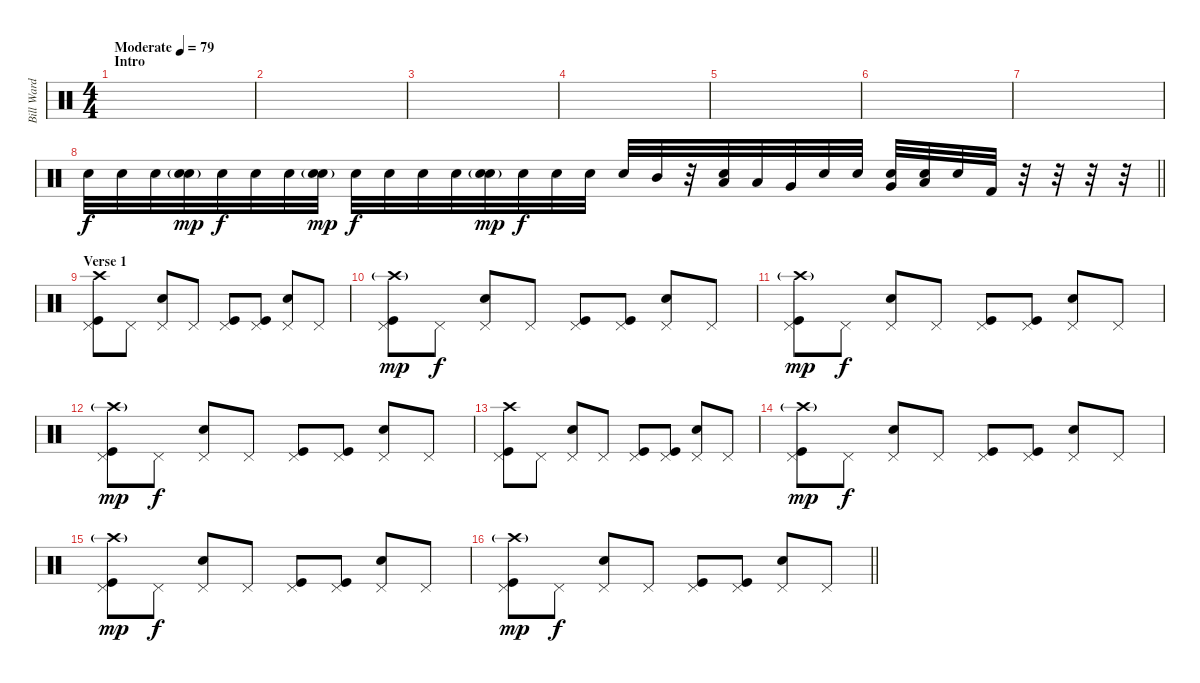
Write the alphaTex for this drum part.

\track ("Bill Ward" "Bill Ward") {instrument percussion}
\staff {score}
\articulation defaults
\ts (4 4)
\section ("" "Intro")
\tempo (79 "Moderate")
\clef neutral
\ks c
|
|
|
|
|
|
|
\barLineRight lightlight "Electric Snare (hit)".32 "Electric Snare (hit)".32 "Electric Snare (hit)".32
("Snare (hit) 2"{g} "Electric Snare (hit)").32{dy mp} "Electric Snare (hit)".32{dy f} "Electric Snare (hit)".32 "Electric Snare (hit)".32 ("Snare (hit) 2"{g} "Electric Snare (hit)").32{dy mp} "Electric Snare (hit)".32{dy f} "Electric Snare (hit)".32 "Electric Snare (hit)".32 "Electric Snare (hit)".32 ("Snare (hit) 2"{g} "Electric Snare (hit)").32{dy mp} "Electric Snare (hit)".32{dy f} "Electric Snare (hit)".32 "Electric Snare (hit)".32 "Electric Snare (hit)".32 "Mid Tom (hit)".32 r.32 ("Electric Snare (hit)" "Low Tom (hit)").32 "Low Tom (hit)".32 "Very Low Tom (hit)".32 "Electric Snare (hit)".32 "Electric Snare (hit)".32 ("Electric Snare (hit)" "Very Low Tom (hit)").32 ("Electric Snare (hit)" "Low Floor Tom (hit)").32 "Electric Snare (hit)".32 "Kick (hit) 2".32 r.32 r.32 r.32 r.32 |
\section ("" "Verse 1")
("Crash high (hit)" "Pedal Hi-Hat (hit)" "Kick (hit)").8 "Pedal Hi-Hat (hit)".8 ("Pedal Hi-Hat (hit)" "Electric Snare (hit)").8 "Pedal Hi-Hat (hit)".8 ("Pedal Hi-Hat (hit)" "Kick (hit)").8 ("Pedal Hi-Hat (hit)" "Kick (hit)").8 ("Pedal Hi-Hat (hit)" "Electric Snare (hit)").8 "Pedal Hi-Hat (hit)".8 |
("Crash high (hit)"{g} "Pedal Hi-Hat (hit)" "Kick (hit)").8{dy mp} "Pedal Hi-Hat (hit)".8{dy f} ("Pedal Hi-Hat (hit)" "Electric Snare (hit)").8 "Pedal Hi-Hat (hit)".8 ("Pedal Hi-Hat (hit)" "Kick (hit)").8 ("Pedal Hi-Hat (hit)" "Kick (hit)").8 ("Pedal Hi-Hat (hit)" "Electric Snare (hit)").8 "Pedal Hi-Hat (hit)".8 |
("Crash high (hit)"{g} "Pedal Hi-Hat (hit)" "Kick (hit)").8{dy mp} "Pedal Hi-Hat (hit)".8{dy f} ("Pedal Hi-Hat (hit)" "Electric Snare (hit)").8 "Pedal Hi-Hat (hit)".8 ("Pedal Hi-Hat (hit)" "Kick (hit)").8 ("Pedal Hi-Hat (hit)" "Kick (hit)").8 ("Pedal Hi-Hat (hit)" "Electric Snare (hit)").8 "Pedal Hi-Hat (hit)".8 |
("Crash high (hit)"{g} "Pedal Hi-Hat (hit)" "Kick (hit)").8{dy mp} "Pedal Hi-Hat (hit)".8{dy f} ("Pedal Hi-Hat (hit)" "Electric Snare (hit)").8 "Pedal Hi-Hat (hit)".8 ("Pedal Hi-Hat (hit)" "Kick (hit)").8 ("Pedal Hi-Hat (hit)" "Kick (hit)").8 ("Pedal Hi-Hat (hit)" "Electric Snare (hit)").8 "Pedal Hi-Hat (hit)".8 |
("Crash high (hit)" "Pedal Hi-Hat (hit)" "Kick (hit)").8 "Pedal Hi-Hat (hit)".8 ("Pedal Hi-Hat (hit)" "Electric Snare (hit)").8 "Pedal Hi-Hat (hit)".8 ("Pedal Hi-Hat (hit)" "Kick (hit)").8 ("Pedal Hi-Hat (hit)" "Kick (hit)").8 ("Pedal Hi-Hat (hit)" "Electric Snare (hit)").8 "Pedal Hi-Hat (hit)".8 |
("Crash high (hit)"{g} "Pedal Hi-Hat (hit)" "Kick (hit)").8{dy mp} "Pedal Hi-Hat (hit)".8{dy f} ("Pedal Hi-Hat (hit)" "Electric Snare (hit)").8 "Pedal Hi-Hat (hit)".8 ("Pedal Hi-Hat (hit)" "Kick (hit)").8 ("Pedal Hi-Hat (hit)" "Kick (hit)").8 ("Pedal Hi-Hat (hit)" "Electric Snare (hit)").8 "Pedal Hi-Hat (hit)".8 |
("Crash high (hit)"{g} "Pedal Hi-Hat (hit)" "Kick (hit)").8{dy mp} "Pedal Hi-Hat (hit)".8{dy f} ("Pedal Hi-Hat (hit)" "Electric Snare (hit)").8 "Pedal Hi-Hat (hit)".8 ("Pedal Hi-Hat (hit)" "Kick (hit)").8 ("Pedal Hi-Hat (hit)" "Kick (hit)").8 ("Pedal Hi-Hat (hit)" "Electric Snare (hit)").8 "Pedal Hi-Hat (hit)".8 |
\barLineRight lightlight
("Crash high (hit)"{g} "Pedal Hi-Hat (hit)" "Kick (hit)").8{dy mp} "Pedal Hi-Hat (hit)".8{dy f} ("Pedal Hi-Hat (hit)" "Electric Snare (hit)").8 "Pedal Hi-Hat (hit)".8 ("Pedal Hi-Hat (hit)" "Kick (hit)").8 ("Pedal Hi-Hat (hit)" "Kick (hit)").8 ("Pedal Hi-Hat (hit)" "Electric Snare (hit)").8 "Pedal Hi-Hat (hit)".8
